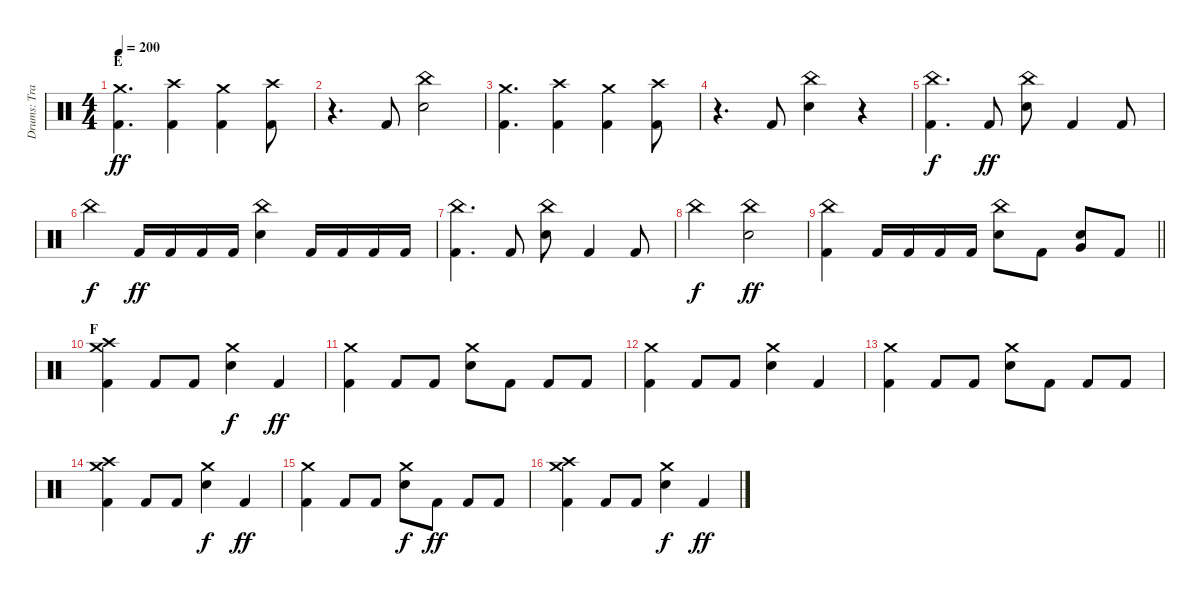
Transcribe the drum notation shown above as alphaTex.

\track ("Drums: Travis Clarke" "Drums: Tra") {instrument percussion}
\staff {score}
\articulation defaults
\ts (4 4)
\section ("" "E")
\tempo 200
\clef neutral
\ks c
("Kick (hit) 2" "Crash medium (hit)").4{d dy ff} ("Kick (hit) 2" "Crash high (hit)").4 ("Kick (hit) 2" "Crash medium (hit)").4 ("Kick (hit) 2" "Crash high (hit)").8 |
r.4{d} "Kick (hit) 2".8 ("Snare (hit) 2" "China (hit)").2 |
("Kick (hit) 2" "Crash medium (hit)").4{d} ("Kick (hit) 2" "Crash high (hit)").4 ("Kick (hit) 2" "Crash medium (hit)").4 ("Kick (hit) 2" "Crash high (hit)").8 |
r.4{d} "Kick (hit) 2".8 ("Snare (hit) 2" "China (hit)").4 r.4 |
("Kick (hit) 2" "China (hit)").4{d dy f} "Kick (hit) 2".8{dy ff} ("Snare (hit) 2" "China (hit)").8 "Kick (hit) 2".4 "Kick (hit) 2".8 |
"China (hit)".4{dy f} "Kick (hit) 2".16{dy ff} "Kick (hit) 2".16 "Kick (hit) 2".16 "Kick (hit) 2".16 ("Snare (hit) 2" "China (hit)").4 "Kick (hit) 2".16 "Kick (hit) 2".16 "Kick (hit) 2".16 "Kick (hit) 2".16 |
("Kick (hit) 2" "China (hit)").4{d} "Kick (hit) 2".8 ("Snare (hit) 2" "China (hit)").8 "Kick (hit) 2".4 "Kick (hit) 2".8 |
"China (hit)".2{dy f} ("Snare (hit) 2" "China (hit)").2{dy ff} |
\barLineRight lightlight
("Kick (hit) 2" "China (hit)").4 "Kick (hit) 2".16 "Kick (hit) 2".16 "Kick (hit) 2".16 "Kick (hit) 2".16 ("Snare (hit) 2" "China (hit)").8 "Kick (hit) 2".8 ("Snare (hit) 2" "Very Low Tom (hit)").8 "Kick (hit) 2".8 |
\section ("" "F")
("Kick (hit) 2" "Crash high (hit)" "Crash medium (hit)").4 "Kick (hit) 2".8 "Kick (hit) 2".8 ("Snare (hit) 2" "Crash medium (hit)").4{dy f} "Kick (hit) 2".4{dy ff} |
("Kick (hit) 2" "Crash medium (hit)").4 "Kick (hit) 2".8 "Kick (hit) 2".8 ("Snare (hit) 2" "Crash medium (hit)").8 "Kick (hit) 2".8 "Kick (hit) 2".8 "Kick (hit) 2".8 |
("Kick (hit) 2" "Crash medium (hit)").4 "Kick (hit) 2".8 "Kick (hit) 2".8 ("Snare (hit) 2" "Crash medium (hit)").4 "Kick (hit) 2".4 |
("Kick (hit) 2" "Crash medium (hit)").4 "Kick (hit) 2".8 "Kick (hit) 2".8 ("Snare (hit) 2" "Crash medium (hit)").8 "Kick (hit) 2".8 "Kick (hit) 2".8 "Kick (hit) 2".8 |
("Kick (hit) 2" "Crash high (hit)" "Crash medium (hit)").4 "Kick (hit) 2".8 "Kick (hit) 2".8 ("Snare (hit) 2" "Crash medium (hit)").4{dy f} "Kick (hit) 2".4{dy ff} |
("Kick (hit) 2" "Crash medium (hit)").4 "Kick (hit) 2".8 "Kick (hit) 2".8 ("Snare (hit) 2" "Crash medium (hit)").8{dy f} "Kick (hit) 2".8{dy ff} "Kick (hit) 2".8 "Kick (hit) 2".8 |
("Kick (hit) 2" "Crash high (hit)" "Crash medium (hit)").4 "Kick (hit) 2".8 "Kick (hit) 2".8 ("Snare (hit) 2" "Crash medium (hit)").4{dy f} "Kick (hit) 2".4{dy ff}
